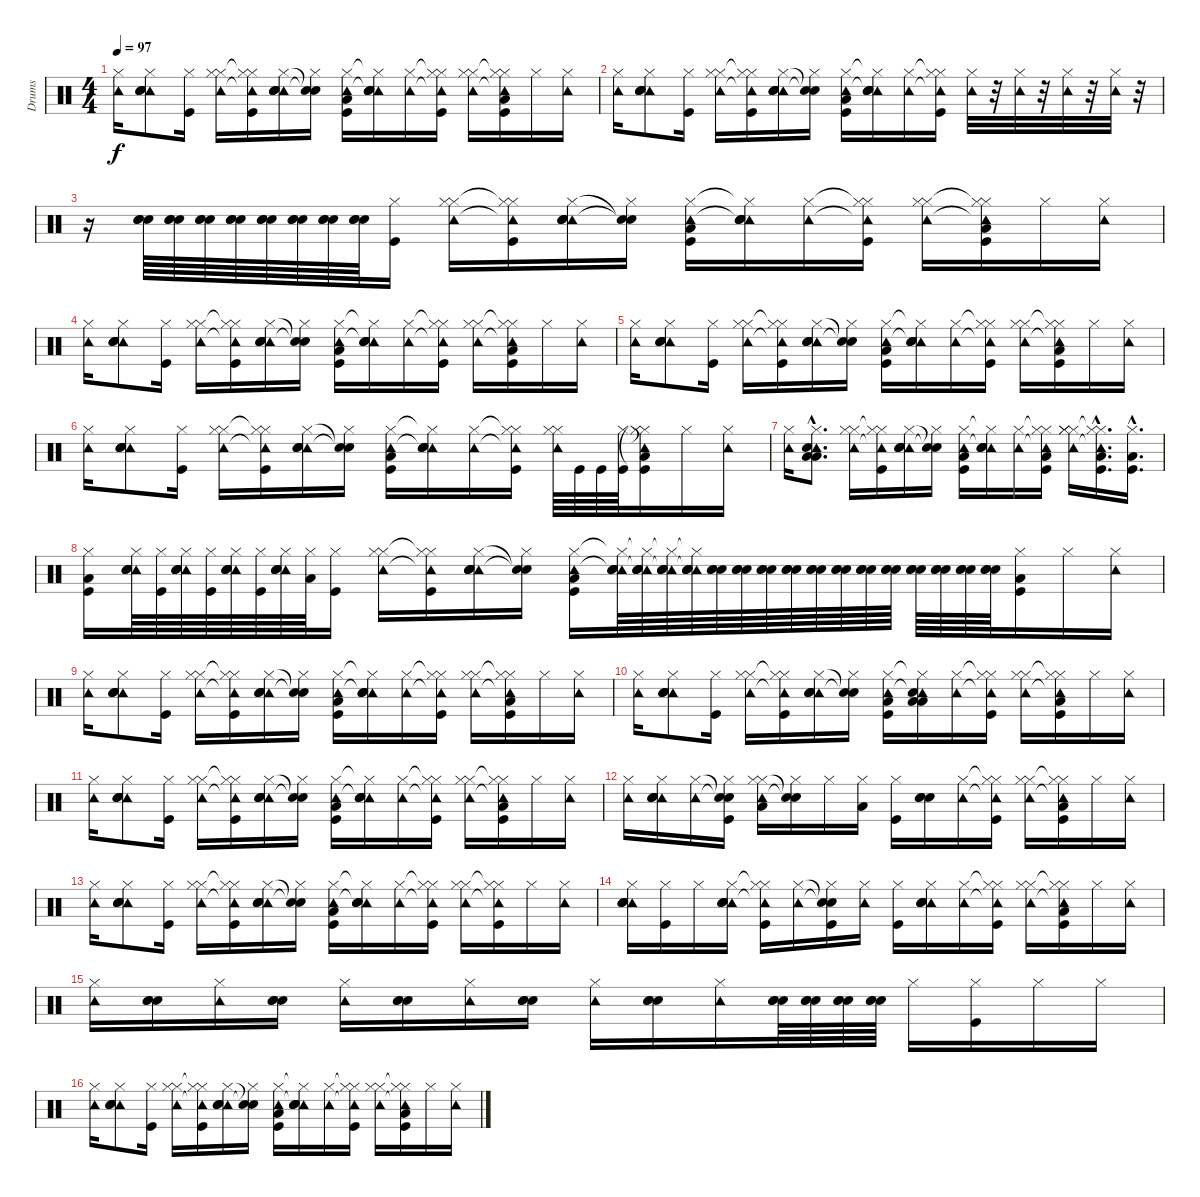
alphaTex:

\track ("Drums" "Drums") {instrument percussion}
\staff {score}
\articulation defaults
\ts (4 4)
\tempo 97
\clef neutral
\ks c
("Hi-Hat (closed)" "Tambourine (hit)").16{dy f} ("Hi-Hat (closed)" "Tambourine (hit)" "Electric Snare (hit)" "Snare (hit) 2" "Snare (hit) 2").8 ("Kick (hit)" "Hi-Hat (closed)").16 ("Hi-Hat (closed)" "Tambourine (hit)" "Hi-Hat (closed)").16 ("Hi-Hat (closed)"{t} "Tambourine (hit)"{t} "Kick (hit)" "Hi-Hat (closed)").16 ("Hi-Hat (closed)" "Tambourine (hit)" "Electric Snare (hit)" "Snare (hit) 2" "Snare (hit) 2").16 ("Snare (hit)"{t} "Snare (hit)"{t} "Hi-Hat (closed)").16 ("Hi-Hat (closed)" "Tambourine (hit)" "Kick (hit)" "Low Tom (hit)").16 ("Hi-Hat (closed)"{t} "Tambourine (hit)"{t} "Electric Snare (hit)" "Snare (hit) 2" "Snare (hit) 2").16 ("Hi-Hat (closed)" "Tambourine (hit)").16 ("Hi-Hat (closed)"{t} "Tambourine (hit)"{t} "Kick (hit)" "Hi-Hat (closed)").16 ("Hi-Hat (closed)" "Tambourine (hit)" "Hi-Hat (closed)").16 ("Hi-Hat (closed)"{t} "Tambourine (hit)"{t} "Kick (hit)" "Hi-Hat (closed)" "Low Tom (hit)").16 "Hi-Hat (closed)".16 ("Hi-Hat (closed)" "Tambourine (hit)").16 |
("Hi-Hat (closed)" "Tambourine (hit)").16 ("Hi-Hat (closed)" "Tambourine (hit)" "Electric Snare (hit)" "Snare (hit) 2" "Snare (hit) 2").8 ("Kick (hit)" "Hi-Hat (closed)").16 ("Hi-Hat (closed)" "Tambourine (hit)" "Hi-Hat (closed)").16 ("Hi-Hat (closed)"{t} "Tambourine (hit)"{t} "Kick (hit)" "Hi-Hat (closed)").16 ("Hi-Hat (closed)" "Tambourine (hit)" "Electric Snare (hit)" "Snare (hit) 2" "Snare (hit) 2").16 ("Snare (hit)"{t} "Snare (hit)"{t} "Hi-Hat (closed)").16 ("Hi-Hat (closed)" "Tambourine (hit)" "Kick (hit)" "Low Tom (hit)").16 ("Hi-Hat (closed)"{t} "Tambourine (hit)"{t} "Electric Snare (hit)" "Snare (hit) 2" "Snare (hit) 2").16 ("Hi-Hat (closed)" "Tambourine (hit)").16 ("Hi-Hat (closed)"{t} "Tambourine (hit)"{t} "Kick (hit)" "Hi-Hat (closed)").16 ("Hi-Hat (closed)" "Tambourine (hit)").32 r.32 ("Hi-Hat (closed)" "Tambourine (hit)").32 r.32 ("Hi-Hat (closed)" "Tambourine (hit)").32 r.32 ("Hi-Hat (closed)" "Tambourine (hit)").32 r.32 |
r.16 ("Electric Snare (hit)" "Snare (hit) 2" "Snare (hit) 2").64 ("Electric Snare (hit)" "Snare (hit) 2" "Snare (hit) 2").64 ("Electric Snare (hit)" "Snare (hit) 2" "Snare (hit) 2").64 ("Electric Snare (hit)" "Snare (hit) 2" "Snare (hit) 2").64 ("Electric Snare (hit)" "Snare (hit) 2" "Snare (hit) 2").64 ("Electric Snare (hit)" "Snare (hit) 2" "Snare (hit) 2").64 ("Electric Snare (hit)" "Snare (hit) 2" "Snare (hit) 2").64 ("Electric Snare (hit)" "Snare (hit) 2" "Snare (hit) 2").64 ("Kick (hit)" "Hi-Hat (closed)").16 ("Hi-Hat (closed)" "Tambourine (hit)" "Hi-Hat (closed)").16 ("Hi-Hat (closed)"{t} "Tambourine (hit)"{t} "Kick (hit)" "Hi-Hat (closed)").16 ("Hi-Hat (closed)" "Tambourine (hit)" "Electric Snare (hit)" "Snare (hit) 2" "Snare (hit) 2").16 ("Snare (hit)"{t} "Snare (hit)"{t} "Hi-Hat (closed)").16 ("Hi-Hat (closed)" "Tambourine (hit)" "Kick (hit)" "Low Tom (hit)").16 ("Hi-Hat (closed)"{t} "Tambourine (hit)"{t} "Electric Snare (hit)" "Snare (hit) 2" "Snare (hit) 2").16 ("Hi-Hat (closed)" "Tambourine (hit)").16 ("Hi-Hat (closed)"{t} "Tambourine (hit)"{t} "Kick (hit)" "Hi-Hat (closed)").16 ("Hi-Hat (closed)" "Tambourine (hit)" "Hi-Hat (closed)").16 ("Hi-Hat (closed)"{t} "Tambourine (hit)"{t} "Kick (hit)" "Hi-Hat (closed)" "Low Tom (hit)").16 "Hi-Hat (closed)".16 ("Hi-Hat (closed)" "Tambourine (hit)").16 |
("Hi-Hat (closed)" "Tambourine (hit)").16 ("Hi-Hat (closed)" "Tambourine (hit)" "Electric Snare (hit)" "Snare (hit) 2" "Snare (hit) 2").8 ("Kick (hit)" "Hi-Hat (closed)").16 ("Hi-Hat (closed)" "Tambourine (hit)" "Hi-Hat (closed)").16 ("Hi-Hat (closed)"{t} "Tambourine (hit)"{t} "Kick (hit)" "Hi-Hat (closed)").16 ("Hi-Hat (closed)" "Tambourine (hit)" "Electric Snare (hit)" "Snare (hit) 2" "Snare (hit) 2").16 ("Snare (hit)"{t} "Snare (hit)"{t} "Hi-Hat (closed)").16 ("Hi-Hat (closed)" "Tambourine (hit)" "Kick (hit)" "Low Tom (hit)").16 ("Hi-Hat (closed)"{t} "Tambourine (hit)"{t} "Electric Snare (hit)" "Snare (hit) 2" "Snare (hit) 2").16 ("Hi-Hat (closed)" "Tambourine (hit)").16 ("Hi-Hat (closed)"{t} "Tambourine (hit)"{t} "Kick (hit)" "Hi-Hat (closed)").16 ("Hi-Hat (closed)" "Tambourine (hit)" "Hi-Hat (closed)").16 ("Hi-Hat (closed)"{t} "Tambourine (hit)"{t} "Kick (hit)" "Hi-Hat (closed)" "Low Tom (hit)").16 "Hi-Hat (closed)".16 ("Hi-Hat (closed)" "Tambourine (hit)").16 |
("Hi-Hat (closed)" "Tambourine (hit)").16 ("Hi-Hat (closed)" "Tambourine (hit)" "Electric Snare (hit)" "Snare (hit) 2" "Snare (hit) 2").8 ("Kick (hit)" "Hi-Hat (closed)").16 ("Hi-Hat (closed)" "Tambourine (hit)" "Hi-Hat (closed)").16 ("Hi-Hat (closed)"{t} "Tambourine (hit)"{t} "Kick (hit)" "Hi-Hat (closed)").16 ("Hi-Hat (closed)" "Tambourine (hit)" "Electric Snare (hit)" "Snare (hit) 2" "Snare (hit) 2").16 ("Snare (hit)"{t} "Snare (hit)"{t} "Hi-Hat (closed)").16 ("Hi-Hat (closed)" "Tambourine (hit)" "Kick (hit)" "Low Tom (hit)").16 ("Hi-Hat (closed)"{t} "Tambourine (hit)"{t} "Electric Snare (hit)" "Snare (hit) 2" "Snare (hit) 2").16 ("Hi-Hat (closed)" "Tambourine (hit)").16 ("Hi-Hat (closed)"{t} "Tambourine (hit)"{t} "Kick (hit)" "Hi-Hat (closed)").16 ("Hi-Hat (closed)" "Tambourine (hit)" "Hi-Hat (closed)").16 ("Hi-Hat (closed)"{t} "Tambourine (hit)"{t} "Kick (hit)" "Hi-Hat (closed)" "Low Tom (hit)").16 "Hi-Hat (closed)".16 ("Hi-Hat (closed)" "Tambourine (hit)").16 |
("Hi-Hat (closed)" "Tambourine (hit)").16 ("Hi-Hat (closed)" "Tambourine (hit)" "Electric Snare (hit)" "Snare (hit) 2" "Snare (hit) 2").8 ("Kick (hit)" "Hi-Hat (closed)").16 ("Hi-Hat (closed)" "Tambourine (hit)" "Hi-Hat (closed)").16 ("Hi-Hat (closed)"{t} "Tambourine (hit)"{t} "Kick (hit)" "Hi-Hat (closed)").16 ("Hi-Hat (closed)" "Tambourine (hit)" "Electric Snare (hit)" "Snare (hit) 2" "Snare (hit) 2").16 ("Snare (hit)"{t} "Snare (hit)"{t} "Hi-Hat (closed)").16 ("Hi-Hat (closed)" "Tambourine (hit)" "Kick (hit)" "Low Tom (hit)").16 ("Hi-Hat (closed)"{t} "Tambourine (hit)"{t} "Electric Snare (hit)" "Snare (hit) 2" "Snare (hit) 2").16 ("Hi-Hat (closed)" "Tambourine (hit)").16 ("Hi-Hat (closed)"{t} "Tambourine (hit)"{t} "Kick (hit)" "Hi-Hat (closed)").16 ("Hi-Hat (closed)" "Tambourine (hit)" "Hi-Hat (closed)").64 "Kick (hit)".64 "Kick (hit)".64 ("Kick (hit)" "Hi-Hat (closed)").64 ("Hi-Hat (closed)"{t} "Tambourine (hit)"{t} "Kick (hit)" "Hi-Hat (closed)" "Low Tom (hit)").16 "Hi-Hat (closed)".16 ("Hi-Hat (closed)" "Tambourine (hit)").16 |
("Hi-Hat (closed)" "Tambourine (hit)").16 ("Hi-Hat (closed)"{hac} "Tambourine (hit)"{hac} "Electric Snare (hit)"{hac} "Low Tom (hit)"{hac} "Low Tom (hit)"{hac}).8{d} ("Hi-Hat (closed)" "Tambourine (hit)" "Hi-Hat (closed)").16 ("Hi-Hat (closed)"{t} "Tambourine (hit)"{t} "Kick (hit)" "Hi-Hat (closed)").16 ("Hi-Hat (closed)" "Tambourine (hit)" "Electric Snare (hit)" "Snare (hit) 2" "Snare (hit) 2").16 ("Snare (hit)"{t} "Snare (hit)"{t} "Hi-Hat (closed)").16 ("Hi-Hat (closed)" "Tambourine (hit)" "Kick (hit)" "Low Tom (hit)").16 ("Hi-Hat (closed)"{t} "Tambourine (hit)"{t} "Electric Snare (hit)" "Snare (hit) 2" "Snare (hit) 2").16 ("Hi-Hat (closed)" "Tambourine (hit)").16 ("Hi-Hat (closed)"{t} "Tambourine (hit)"{t} "Kick (hit)" "Hi-Hat (closed)" "Low Tom (hit)").16 ("Hi-Hat (closed)" "Tambourine (hit)" "Hi-Hat (closed)" "Hi-Hat (closed)").16 ("Hi-Hat (closed)"{hac t} "Tambourine (hit)"{hac t} "Kick (hit)"{hac} "Hi-Hat (closed)"{hac} "Low Tom (hit)"{hac}).16{d} ("Kick (hit)"{hac} "Hi-Hat (closed)"{hac} "Low Tom (hit)"{hac}).16{d} |
("Kick (hit)" "Hi-Hat (closed)" "Low Tom (hit)").16 ("Hi-Hat (closed)" "Tambourine (hit)" "Electric Snare (hit)" "Snare (hit) 2" "Snare (hit) 2").64 ("Kick (hit)" "Hi-Hat (closed)").64 ("Hi-Hat (closed)" "Tambourine (hit)" "Electric Snare (hit)" "Snare (hit) 2" "Snare (hit) 2").64 ("Kick (hit)" "Hi-Hat (closed)").64 ("Hi-Hat (closed)" "Tambourine (hit)" "Electric Snare (hit)" "Snare (hit) 2" "Snare (hit) 2").64 ("Kick (hit)" "Hi-Hat (closed)").64 ("Hi-Hat (closed)" "Tambourine (hit)" "Electric Snare (hit)" "Snare (hit) 2" "Snare (hit) 2").64 ("Low Tom (hit)" "Hi-Hat (closed)").64 ("Kick (hit)" "Hi-Hat (closed)").16 ("Hi-Hat (closed)" "Tambourine (hit)" "Hi-Hat (closed)").16 ("Hi-Hat (closed)"{t} "Tambourine (hit)"{t} "Kick (hit)" "Hi-Hat (closed)").16 ("Hi-Hat (closed)" "Tambourine (hit)" "Electric Snare (hit)" "Snare (hit) 2" "Snare (hit) 2").16 ("Snare (hit)"{t} "Snare (hit)"{t} "Hi-Hat (closed)").16 ("Hi-Hat (closed)" "Tambourine (hit)" "Kick (hit)" "Low Tom (hit)").16 ("Hi-Hat (closed)"{t} "Tambourine (hit)"{t} "Electric Snare (hit)" "Snare (hit) 2" "Snare (hit) 2").64 ("Hi-Hat (closed)"{t} "Tambourine (hit)"{t} "Electric Snare (hit)" "Snare (hit) 2" "Snare (hit) 2").64 ("Hi-Hat (closed)"{t} "Tambourine (hit)"{t} "Electric Snare (hit)" "Snare (hit) 2" "Snare (hit) 2").64 ("Hi-Hat (closed)"{t} "Tambourine (hit)"{t} "Electric Snare (hit)" "Snare (hit) 2" "Snare (hit) 2").64 ("Electric Snare (hit)" "Snare (hit) 2" "Snare (hit) 2").64 ("Electric Snare (hit)" "Snare (hit) 2" "Snare (hit) 2").64 ("Electric Snare (hit)" "Snare (hit) 2" "Snare (hit) 2").64 ("Electric Snare (hit)" "Snare (hit) 2" "Snare (hit) 2").64 ("Electric Snare (hit)" "Snare (hit) 2" "Snare (hit) 2").64 ("Electric Snare (hit)" "Snare (hit) 2" "Snare (hit) 2").64 ("Electric Snare (hit)" "Snare (hit) 2" "Snare (hit) 2").64 ("Electric Snare (hit)" "Snare (hit) 2" "Snare (hit) 2").64 ("Electric Snare (hit)" "Snare (hit) 2" "Snare (hit) 2").64 ("Electric Snare (hit)" "Snare (hit) 2" "Snare (hit) 2").64 ("Electric Snare (hit)" "Snare (hit) 2" "Snare (hit) 2").64 ("Electric Snare (hit)" "Snare (hit) 2" "Snare (hit) 2").64 ("Kick (hit)" "Hi-Hat (closed)" "Low Tom (hit)").16 "Hi-Hat (closed)".16 ("Hi-Hat (closed)" "Tambourine (hit)").16 |
("Hi-Hat (closed)" "Tambourine (hit)").16 ("Hi-Hat (closed)" "Tambourine (hit)" "Electric Snare (hit)" "Snare (hit) 2" "Snare (hit) 2").8 ("Kick (hit)" "Hi-Hat (closed)").16 ("Hi-Hat (closed)" "Tambourine (hit)" "Hi-Hat (closed)").16 ("Hi-Hat (closed)"{t} "Tambourine (hit)"{t} "Kick (hit)" "Hi-Hat (closed)").16 ("Hi-Hat (closed)" "Tambourine (hit)" "Electric Snare (hit)" "Snare (hit) 2" "Snare (hit) 2").16 ("Snare (hit)"{t} "Snare (hit)"{t} "Hi-Hat (closed)").16 ("Hi-Hat (closed)" "Tambourine (hit)" "Kick (hit)" "Low Tom (hit)").16 ("Hi-Hat (closed)"{t} "Tambourine (hit)"{t} "Electric Snare (hit)" "Snare (hit) 2" "Snare (hit) 2").16 ("Hi-Hat (closed)" "Tambourine (hit)").16 ("Hi-Hat (closed)"{t} "Tambourine (hit)"{t} "Kick (hit)" "Hi-Hat (closed)").16 ("Hi-Hat (closed)" "Tambourine (hit)" "Hi-Hat (closed)").16 ("Hi-Hat (closed)"{t} "Tambourine (hit)"{t} "Kick (hit)" "Hi-Hat (closed)" "Low Tom (hit)").16 "Hi-Hat (closed)".16 ("Hi-Hat (closed)" "Tambourine (hit)").16 |
("Hi-Hat (closed)" "Tambourine (hit)").16 ("Hi-Hat (closed)" "Tambourine (hit)" "Electric Snare (hit)" "Snare (hit) 2" "Snare (hit) 2").8 ("Kick (hit)" "Hi-Hat (closed)").16 ("Hi-Hat (closed)" "Tambourine (hit)" "Hi-Hat (closed)").16 ("Hi-Hat (closed)"{t} "Tambourine (hit)"{t} "Kick (hit)" "Hi-Hat (closed)").16 ("Hi-Hat (closed)" "Tambourine (hit)" "Electric Snare (hit)" "Snare (hit) 2" "Snare (hit) 2").16 ("Snare (hit)"{t} "Snare (hit)"{t} "Hi-Hat (closed)").16 ("Hi-Hat (closed)" "Tambourine (hit)" "Kick (hit)" "Low Tom (hit)").16 ("Hi-Hat (closed)"{t} "Tambourine (hit)"{t} "Electric Snare (hit)" "Low Tom (hit)" "Low Tom (hit)").16 ("Hi-Hat (closed)" "Tambourine (hit)").16 ("Hi-Hat (closed)"{t} "Tambourine (hit)"{t} "Kick (hit)" "Hi-Hat (closed)").16 ("Hi-Hat (closed)" "Tambourine (hit)" "Hi-Hat (closed)").16 ("Hi-Hat (closed)"{t} "Tambourine (hit)"{t} "Kick (hit)" "Hi-Hat (closed)" "Low Tom (hit)").16 "Hi-Hat (closed)".16 ("Hi-Hat (closed)" "Tambourine (hit)").16 |
("Hi-Hat (closed)" "Tambourine (hit)").16 ("Hi-Hat (closed)" "Tambourine (hit)" "Electric Snare (hit)" "Snare (hit) 2" "Snare (hit) 2").8 ("Kick (hit)" "Hi-Hat (closed)").16 ("Hi-Hat (closed)" "Tambourine (hit)" "Hi-Hat (closed)").16 ("Hi-Hat (closed)"{t} "Tambourine (hit)"{t} "Kick (hit)" "Hi-Hat (closed)").16 ("Hi-Hat (closed)" "Tambourine (hit)" "Electric Snare (hit)" "Snare (hit) 2" "Snare (hit) 2").16 ("Snare (hit)"{t} "Snare (hit)"{t} "Hi-Hat (closed)").16 ("Hi-Hat (closed)" "Tambourine (hit)" "Kick (hit)" "Low Tom (hit)").16 ("Hi-Hat (closed)"{t} "Tambourine (hit)"{t} "Electric Snare (hit)" "Snare (hit) 2" "Snare (hit) 2").16 ("Hi-Hat (closed)" "Tambourine (hit)").16 ("Hi-Hat (closed)"{t} "Tambourine (hit)"{t} "Kick (hit)" "Hi-Hat (closed)").16 ("Hi-Hat (closed)" "Tambourine (hit)" "Hi-Hat (closed)").16 ("Hi-Hat (closed)"{t} "Tambourine (hit)"{t} "Kick (hit)" "Hi-Hat (closed)" "Low Tom (hit)").16 "Hi-Hat (closed)".16 ("Hi-Hat (closed)" "Tambourine (hit)").16 |
("Hi-Hat (closed)" "Tambourine (hit)").16 ("Hi-Hat (closed)" "Tambourine (hit)" "Electric Snare (hit)" "Snare (hit) 2" "Snare (hit) 2").16 ("Hi-Hat (closed)" "Tambourine (hit)").16 ("Snare (hit)"{t} "Snare (hit)"{t} "Kick (hit)" "Hi-Hat (closed)").16 ("Hi-Hat (closed)" "Tambourine (hit)" "Hi-Hat (closed)" "Low Tom (hit)").16 ("Snare (hit)"{t} "Snare (hit)"{t} "Hi-Hat (closed)").16 "Hi-Hat (closed)".16 ("Hi-Hat (closed)" "Low Tom (hit)").16 ("Kick (hit)" "Hi-Hat (closed)").16 ("Electric Snare (hit)" "Snare (hit) 2" "Snare (hit) 2").16 ("Hi-Hat (closed)" "Tambourine (hit)").16 ("Hi-Hat (closed)"{t} "Tambourine (hit)"{t} "Kick (hit)" "Hi-Hat (closed)").16 ("Hi-Hat (closed)" "Tambourine (hit)" "Hi-Hat (closed)").16 ("Hi-Hat (closed)"{t} "Tambourine (hit)"{t} "Kick (hit)" "Hi-Hat (closed)" "Low Tom (hit)").16 "Hi-Hat (closed)".16 ("Hi-Hat (closed)" "Tambourine (hit)").16 |
("Hi-Hat (closed)" "Tambourine (hit)").16 ("Hi-Hat (closed)" "Tambourine (hit)" "Electric Snare (hit)" "Snare (hit) 2" "Snare (hit) 2").8 ("Kick (hit)" "Hi-Hat (closed)").16 ("Hi-Hat (closed)" "Tambourine (hit)" "Hi-Hat (closed)").16 ("Hi-Hat (closed)"{t} "Tambourine (hit)"{t} "Kick (hit)" "Hi-Hat (closed)").16 ("Hi-Hat (closed)" "Tambourine (hit)" "Electric Snare (hit)" "Snare (hit) 2" "Snare (hit) 2").16 ("Snare (hit)"{t} "Snare (hit)"{t} "Hi-Hat (closed)").16 ("Hi-Hat (closed)" "Tambourine (hit)" "Kick (hit)" "Low Tom (hit)").16 ("Hi-Hat (closed)"{t} "Tambourine (hit)"{t} "Electric Snare (hit)" "Snare (hit) 2" "Snare (hit) 2").16 ("Hi-Hat (closed)" "Tambourine (hit)").16 ("Hi-Hat (closed)"{t} "Tambourine (hit)"{t} "Kick (hit)" "Hi-Hat (closed)").16 ("Hi-Hat (closed)" "Tambourine (hit)" "Hi-Hat (closed)").16 ("Hi-Hat (closed)"{t} "Tambourine (hit)"{t} "Kick (hit)" "Hi-Hat (closed)").16 "Hi-Hat (closed)".16 ("Hi-Hat (closed)" "Tambourine (hit)").16 |
("Hi-Hat (closed)" "Tambourine (hit)" "Electric Snare (hit)" "Snare (hit) 2" "Snare (hit) 2").16 ("Kick (hit)" "Hi-Hat (closed)").16 "Hi-Hat (closed)".16 ("Hi-Hat (closed)" "Tambourine (hit)" "Electric Snare (hit)" "Snare (hit) 2" "Snare (hit) 2").16 ("Hi-Hat (closed)"{t} "Tambourine (hit)"{t} "Kick (hit)" "Hi-Hat (closed)").16 ("Hi-Hat (closed)" "Tambourine (hit)").16 ("Snare (hit)"{t} "Snare (hit)"{t} "Kick (hit)" "Hi-Hat (closed)").16 ("Hi-Hat (closed)" "Tambourine (hit)").16 ("Kick (hit)" "Hi-Hat (closed)").16 ("Hi-Hat (closed)" "Tambourine (hit)" "Electric Snare (hit)" "Snare (hit) 2" "Snare (hit) 2").16 ("Hi-Hat (closed)" "Tambourine (hit)").16 ("Hi-Hat (closed)"{t} "Tambourine (hit)"{t} "Kick (hit)" "Hi-Hat (closed)").16 ("Hi-Hat (closed)" "Tambourine (hit)" "Hi-Hat (closed)").16 ("Hi-Hat (closed)"{t} "Tambourine (hit)"{t} "Kick (hit)" "Hi-Hat (closed)" "Low Tom (hit)").16 "Hi-Hat (closed)".16 ("Hi-Hat (closed)" "Tambourine (hit)").16 |
("Hi-Hat (closed)" "Tambourine (hit)").16 ("Electric Snare (hit)" "Snare (hit) 2" "Snare (hit) 2").16 ("Hi-Hat (closed)" "Tambourine (hit)").16 ("Electric Snare (hit)" "Snare (hit) 2" "Snare (hit) 2").16 ("Hi-Hat (closed)" "Tambourine (hit)").16 ("Electric Snare (hit)" "Snare (hit) 2" "Snare (hit) 2").16 ("Hi-Hat (closed)" "Tambourine (hit)").16 ("Electric Snare (hit)" "Snare (hit) 2" "Snare (hit) 2").16 ("Hi-Hat (closed)" "Tambourine (hit)").16 ("Electric Snare (hit)" "Snare (hit) 2" "Snare (hit) 2").16 ("Hi-Hat (closed)" "Tambourine (hit)").16 ("Electric Snare (hit)" "Snare (hit) 2" "Snare (hit) 2").64{volume 4} ("Electric Snare (hit)" "Snare (hit) 2" "Snare (hit) 2").64{volume 7} ("Electric Snare (hit)" "Snare (hit) 2" "Snare (hit) 2").64{volume 10} ("Electric Snare (hit)" "Snare (hit) 2" "Snare (hit) 2").64{volume 16} "Hi-Hat (closed)".16 ("Kick (hit)" "Hi-Hat (closed)").16 "Hi-Hat (closed)".16 "Hi-Hat (closed)".16 |
("Hi-Hat (closed)" "Tambourine (hit)").16 ("Hi-Hat (closed)" "Tambourine (hit)" "Electric Snare (hit)" "Snare (hit) 2" "Snare (hit) 2").8 ("Kick (hit)" "Hi-Hat (closed)").16 ("Hi-Hat (closed)" "Tambourine (hit)" "Hi-Hat (closed)").16 ("Hi-Hat (closed)"{t} "Tambourine (hit)"{t} "Kick (hit)" "Hi-Hat (closed)").16 ("Hi-Hat (closed)" "Tambourine (hit)" "Electric Snare (hit)" "Snare (hit) 2" "Snare (hit) 2").16 ("Snare (hit)"{t} "Snare (hit)"{t} "Hi-Hat (closed)").16 ("Hi-Hat (closed)" "Tambourine (hit)" "Kick (hit)" "Low Tom (hit)").16 ("Hi-Hat (closed)"{t} "Tambourine (hit)"{t} "Electric Snare (hit)" "Snare (hit) 2" "Snare (hit) 2").16 ("Hi-Hat (closed)" "Tambourine (hit)").16 ("Hi-Hat (closed)"{t} "Tambourine (hit)"{t} "Kick (hit)" "Hi-Hat (closed)").16 ("Hi-Hat (closed)" "Tambourine (hit)" "Hi-Hat (closed)").16 ("Hi-Hat (closed)"{t} "Tambourine (hit)"{t} "Kick (hit)" "Hi-Hat (closed)" "Low Tom (hit)").16 "Hi-Hat (closed)".16 ("Hi-Hat (closed)" "Tambourine (hit)").16
